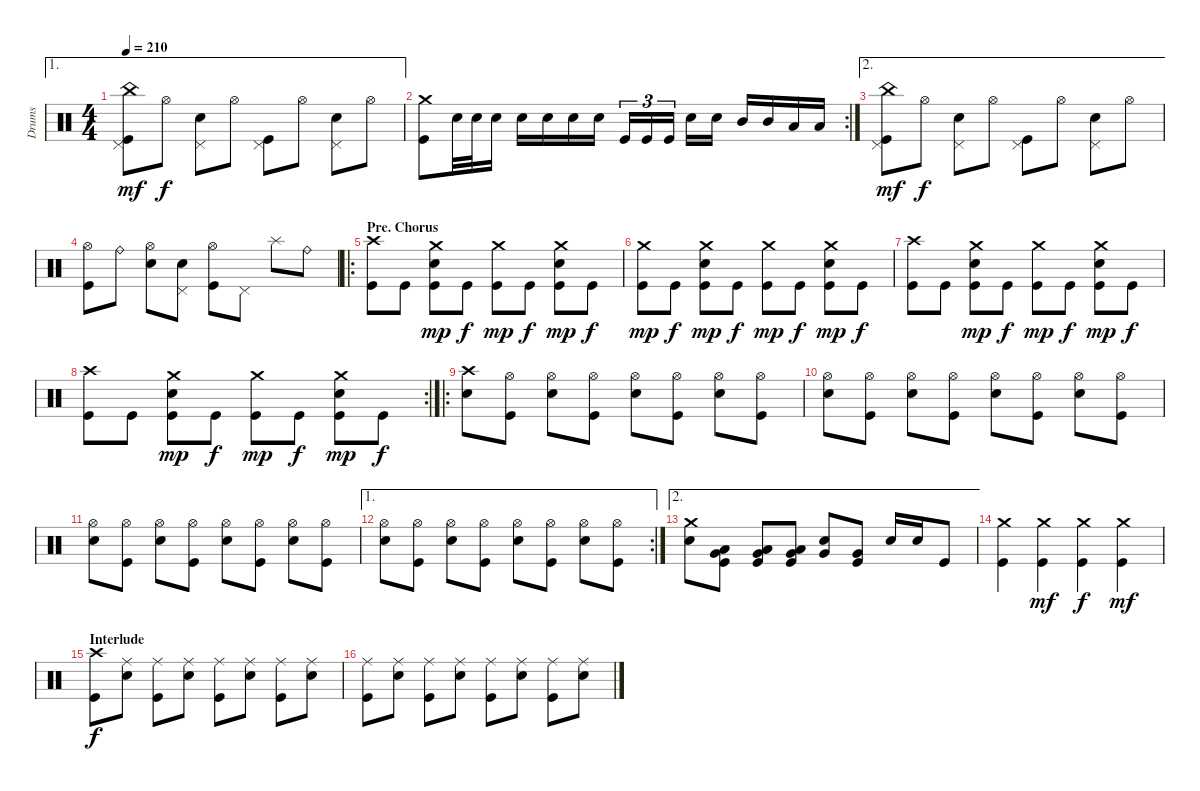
\track ("Drums" "Drums") {instrument percussion}
\staff {score}
\articulation defaults
\ae 1
\ts (4 4)
\tempo 210
\clef neutral
\ks c
("China (hit)" "Pedal Hi-Hat (hit)" "Kick (hit)").8{dy mf} "Hi-Hat (open)".8{dy f} ("Pedal Hi-Hat (hit)" "Electric Snare (hit)").8 "Hi-Hat (open)".8 ("Pedal Hi-Hat (hit)" "Kick (hit)").8 "Hi-Hat (open)".8 ("Pedal Hi-Hat (hit)" "Electric Snare (hit)").8 "Hi-Hat (open)".8 |
\rc 2
("Crash medium (hit)" "Kick (hit)").8 "Electric Snare (hit)".32 "Electric Snare (hit)".32 "Electric Snare (hit)".16 "Electric Snare (hit)".16 "Electric Snare (hit)".16 "Electric Snare (hit)".16 "Electric Snare (hit)".16 "Kick (hit)".16{tu (3 2)} "Kick (hit)".16{tu (3 2)} "Kick (hit)".16{tu (3 2)} "Electric Snare (hit)".16 "Electric Snare (hit)".16 "Mid Tom (hit)".16 "Mid Tom (hit)".16 "Low Tom (hit)".16 "Low Tom (hit)".16 |
\ae 2
("China (hit)" "Pedal Hi-Hat (hit)" "Kick (hit)").8{dy mf} "Hi-Hat (open)".8{dy f} ("Pedal Hi-Hat (hit)" "Electric Snare (hit)").8 "Hi-Hat (open)".8 ("Pedal Hi-Hat (hit)" "Kick (hit)").8 "Hi-Hat (open)".8 ("Pedal Hi-Hat (hit)" "Electric Snare (hit)").8 "Hi-Hat (open)".8 |
("Hi-Hat (open)" "Kick (hit)").8 "Ride (bell)".8 ("Hi-Hat (open)" "Electric Snare (hit)").8 ("Pedal Hi-Hat (hit)" "Electric Snare (hit)").8 ("Hi-Hat (open)" "Kick (hit)").8 "Pedal Hi-Hat (hit)".8 "Splash (hit)".8 "Ride (bell)".8 |
\ro
\section ("" "Pre. Chorus")
("Crash high (hit)" "Kick (hit)").8 "Kick (hit)".8 ("Crash medium (hit)" "Electric Snare (hit)" "Kick (hit)").8{dy mp} "Kick (hit)".8{dy f} ("Crash medium (hit)" "Kick (hit)").8{dy mp} "Kick (hit)".8{dy f} ("Crash medium (hit)" "Electric Snare (hit)" "Kick (hit)").8{dy mp} "Kick (hit)".8{dy f} |
("Crash medium (hit)" "Kick (hit)").8{dy mp} "Kick (hit)".8{dy f} ("Crash medium (hit)" "Electric Snare (hit)" "Kick (hit)").8{dy mp} "Kick (hit)".8{dy f} ("Crash medium (hit)" "Kick (hit)").8{dy mp} "Kick (hit)".8{dy f} ("Crash medium (hit)" "Electric Snare (hit)" "Kick (hit)").8{dy mp} "Kick (hit)".8{dy f} |
("Crash high (hit)" "Kick (hit)").8 "Kick (hit)".8 ("Crash medium (hit)" "Electric Snare (hit)" "Kick (hit)").8{dy mp} "Kick (hit)".8{dy f} ("Crash medium (hit)" "Kick (hit)").8{dy mp} "Kick (hit)".8{dy f} ("Crash medium (hit)" "Electric Snare (hit)" "Kick (hit)").8{dy mp} "Kick (hit)".8{dy f} |
\rc 2
("Crash high (hit)" "Kick (hit)").8 "Kick (hit)".8 ("Crash medium (hit)" "Electric Snare (hit)" "Kick (hit)").8{dy mp} "Kick (hit)".8{dy f} ("Crash medium (hit)" "Kick (hit)").8{dy mp} "Kick (hit)".8{dy f} ("Crash medium (hit)" "Electric Snare (hit)" "Kick (hit)").8{dy mp} "Kick (hit)".8{dy f} |
\ro
("Crash high (hit)" "Electric Snare (hit)").8 ("Hi-Hat (open)" "Kick (hit)").8 ("Hi-Hat (open)" "Electric Snare (hit)").8 ("Hi-Hat (open)" "Kick (hit)").8 ("Hi-Hat (open)" "Electric Snare (hit)").8 ("Hi-Hat (open)" "Kick (hit)").8 ("Hi-Hat (open)" "Electric Snare (hit)").8 ("Hi-Hat (open)" "Kick (hit)").8 |
("Hi-Hat (open)" "Electric Snare (hit)").8 ("Hi-Hat (open)" "Kick (hit)").8 ("Hi-Hat (open)" "Electric Snare (hit)").8 ("Hi-Hat (open)" "Kick (hit)").8 ("Hi-Hat (open)" "Electric Snare (hit)").8 ("Hi-Hat (open)" "Kick (hit)").8 ("Hi-Hat (open)" "Electric Snare (hit)").8 ("Hi-Hat (open)" "Kick (hit)").8 |
("Hi-Hat (open)" "Electric Snare (hit)").8 ("Hi-Hat (open)" "Kick (hit)").8 ("Hi-Hat (open)" "Electric Snare (hit)").8 ("Hi-Hat (open)" "Kick (hit)").8 ("Hi-Hat (open)" "Electric Snare (hit)").8 ("Hi-Hat (open)" "Kick (hit)").8 ("Hi-Hat (open)" "Electric Snare (hit)").8 ("Hi-Hat (open)" "Kick (hit)").8 |
\ae 1
\rc 2
("Hi-Hat (open)" "Electric Snare (hit)").8 ("Hi-Hat (open)" "Kick (hit)").8 ("Hi-Hat (open)" "Electric Snare (hit)").8 ("Hi-Hat (open)" "Kick (hit)").8 ("Hi-Hat (open)" "Electric Snare (hit)").8 ("Hi-Hat (open)" "Kick (hit)").8 ("Hi-Hat (open)" "Electric Snare (hit)").8 ("Hi-Hat (open)" "Kick (hit)").8 |
\ae 2
("Crash medium (hit)" "Electric Snare (hit)").8 ("Very Low Tom (hit)" "Low Tom (hit)" "Kick (hit)").8 ("Very Low Tom (hit)" "Low Tom (hit)" "Kick (hit)").8 ("Very Low Tom (hit)" "Low Tom (hit)" "Kick (hit)").8 ("Very Low Tom (hit)" "Electric Snare (hit)").8 ("Very Low Tom (hit)" "Kick (hit)").8 "Electric Snare (hit)".16 "Electric Snare (hit)".16 "Kick (hit)".8 |
("Crash medium (hit)" "Kick (hit)").4 ("Crash medium (hit)" "Kick (hit)").4{dy mf} ("Crash medium (hit)" "Kick (hit)").4{dy f} ("Crash medium (hit)" "Kick (hit)").4{dy mf} |
\section ("" "Interlude")
("Crash high (hit)" "Kick (hit)").8{dy f} ("Ride (middle)" "Electric Snare (hit)").8 ("Ride (middle)" "Kick (hit)").8 ("Ride (middle)" "Electric Snare (hit)").8 ("Ride (middle)" "Kick (hit)").8 ("Ride (middle)" "Electric Snare (hit)").8 ("Ride (middle)" "Kick (hit)").8 ("Ride (middle)" "Electric Snare (hit)").8 |
("Ride (middle)" "Kick (hit)").8 ("Ride (middle)" "Electric Snare (hit)").8 ("Ride (middle)" "Kick (hit)").8 ("Ride (middle)" "Electric Snare (hit)").8 ("Ride (middle)" "Kick (hit)").8 ("Ride (middle)" "Electric Snare (hit)").8 ("Ride (middle)" "Kick (hit)").8 ("Ride (middle)" "Electric Snare (hit)").8
